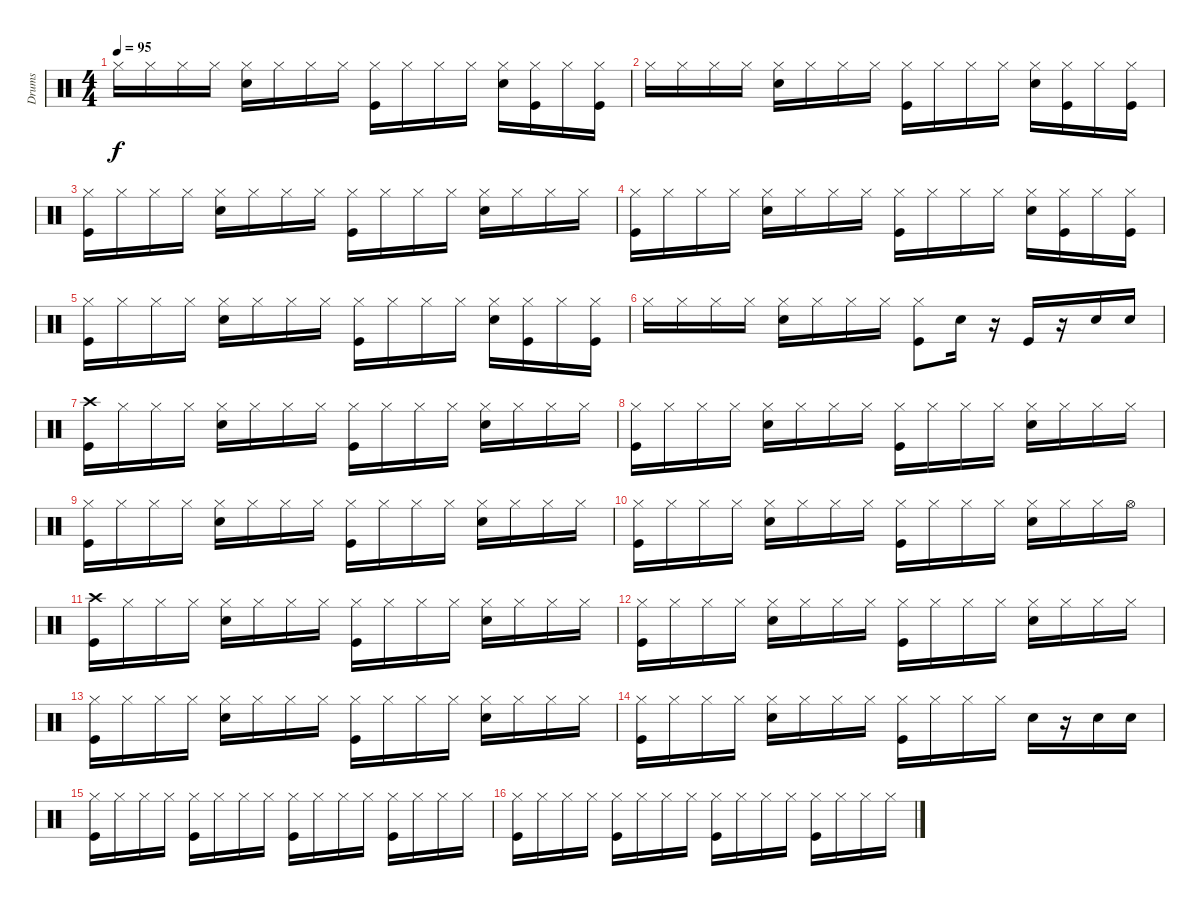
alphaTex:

\track ("Drums" "Drums") {instrument percussion}
\staff {score}
\articulation defaults
\ts (4 4)
\tempo 95
\clef neutral
\ks c "Hi-Hat (closed)".16{dy f} "Hi-Hat (closed)".16 "Hi-Hat (closed)".16 "Hi-Hat (closed)".16
("Hi-Hat (closed)" "Snare (hit) 2").16 "Hi-Hat (closed)".16 "Hi-Hat (closed)".16 "Hi-Hat (closed)".16 ("Hi-Hat (closed)" "Kick (hit)").16 "Hi-Hat (closed)".16 "Hi-Hat (closed)".16 "Hi-Hat (closed)".16 ("Hi-Hat (closed)" "Snare (hit) 2").16 ("Hi-Hat (closed)" "Kick (hit)").16 "Hi-Hat (closed)".16 ("Hi-Hat (closed)" "Kick (hit)").16 |
"Hi-Hat (closed)".16 "Hi-Hat (closed)".16 "Hi-Hat (closed)".16 "Hi-Hat (closed)".16 ("Hi-Hat (closed)" "Snare (hit) 2").16 "Hi-Hat (closed)".16 "Hi-Hat (closed)".16 "Hi-Hat (closed)".16 ("Hi-Hat (closed)" "Kick (hit)").16 "Hi-Hat (closed)".16 "Hi-Hat (closed)".16 "Hi-Hat (closed)".16 ("Hi-Hat (closed)" "Snare (hit) 2").16 ("Hi-Hat (closed)" "Kick (hit)").16 "Hi-Hat (closed)".16 ("Hi-Hat (closed)" "Kick (hit)").16 |
("Hi-Hat (closed)" "Kick (hit)").16 "Hi-Hat (closed)".16 "Hi-Hat (closed)".16 "Hi-Hat (closed)".16 ("Hi-Hat (closed)" "Snare (hit) 2").16 "Hi-Hat (closed)".16 "Hi-Hat (closed)".16 "Hi-Hat (closed)".16 ("Hi-Hat (closed)" "Kick (hit)").16 "Hi-Hat (closed)".16 "Hi-Hat (closed)".16 "Hi-Hat (closed)".16 ("Hi-Hat (closed)" "Snare (hit) 2").16 "Hi-Hat (closed)".16 "Hi-Hat (closed)".16 "Hi-Hat (closed)".16 |
("Hi-Hat (closed)" "Kick (hit)").16 "Hi-Hat (closed)".16 "Hi-Hat (closed)".16 "Hi-Hat (closed)".16 ("Hi-Hat (closed)" "Snare (hit) 2").16 "Hi-Hat (closed)".16 "Hi-Hat (closed)".16 "Hi-Hat (closed)".16 ("Hi-Hat (closed)" "Kick (hit)").16 "Hi-Hat (closed)".16 "Hi-Hat (closed)".16 "Hi-Hat (closed)".16 ("Hi-Hat (closed)" "Snare (hit) 2").16 ("Hi-Hat (closed)" "Kick (hit)").16 "Hi-Hat (closed)".16 ("Hi-Hat (closed)" "Kick (hit)").16 |
("Hi-Hat (closed)" "Kick (hit)").16 "Hi-Hat (closed)".16 "Hi-Hat (closed)".16 "Hi-Hat (closed)".16 ("Hi-Hat (closed)" "Snare (hit) 2").16 "Hi-Hat (closed)".16 "Hi-Hat (closed)".16 "Hi-Hat (closed)".16 ("Hi-Hat (closed)" "Kick (hit)").16 "Hi-Hat (closed)".16 "Hi-Hat (closed)".16 "Hi-Hat (closed)".16 ("Hi-Hat (closed)" "Snare (hit) 2").16 ("Hi-Hat (closed)" "Kick (hit)").16 "Hi-Hat (closed)".16 ("Hi-Hat (closed)" "Kick (hit)").16 |
"Hi-Hat (closed)".16 "Hi-Hat (closed)".16 "Hi-Hat (closed)".16 "Hi-Hat (closed)".16 ("Hi-Hat (closed)" "Snare (hit) 2").16 "Hi-Hat (closed)".16 "Hi-Hat (closed)".16 "Hi-Hat (closed)".16 ("Hi-Hat (closed)" "Kick (hit)").8 "Snare (hit) 2".16 r.16 "Kick (hit)".16 r.16 "Snare (hit) 2".16 "Snare (hit) 2".16 |
("Crash high (hit)" "Kick (hit)").16 "Hi-Hat (closed)".16 "Hi-Hat (closed)".16 "Hi-Hat (closed)".16 ("Hi-Hat (closed)" "Snare (hit) 2").16 "Hi-Hat (closed)".16 "Hi-Hat (closed)".16 "Hi-Hat (closed)".16 ("Hi-Hat (closed)" "Kick (hit)").16 "Hi-Hat (closed)".16 "Hi-Hat (closed)".16 "Hi-Hat (closed)".16 ("Hi-Hat (closed)" "Snare (hit) 2").16 "Hi-Hat (closed)".16 "Hi-Hat (closed)".16 "Hi-Hat (closed)".16 |
("Hi-Hat (closed)" "Kick (hit)").16 "Hi-Hat (closed)".16 "Hi-Hat (closed)".16 "Hi-Hat (closed)".16 ("Hi-Hat (closed)" "Snare (hit) 2").16 "Hi-Hat (closed)".16 "Hi-Hat (closed)".16 "Hi-Hat (closed)".16 ("Hi-Hat (closed)" "Kick (hit)").16 "Hi-Hat (closed)".16 "Hi-Hat (closed)".16 "Hi-Hat (closed)".16 ("Hi-Hat (closed)" "Snare (hit) 2").16 "Hi-Hat (closed)".16 "Hi-Hat (closed)".16 "Hi-Hat (closed)".16 |
("Hi-Hat (closed)" "Kick (hit)").16 "Hi-Hat (closed)".16 "Hi-Hat (closed)".16 "Hi-Hat (closed)".16 ("Hi-Hat (closed)" "Snare (hit) 2").16 "Hi-Hat (closed)".16 "Hi-Hat (closed)".16 "Hi-Hat (closed)".16 ("Hi-Hat (closed)" "Kick (hit)").16 "Hi-Hat (closed)".16 "Hi-Hat (closed)".16 "Hi-Hat (closed)".16 ("Hi-Hat (closed)" "Snare (hit) 2").16 "Hi-Hat (closed)".16 "Hi-Hat (closed)".16 "Hi-Hat (closed)".16 |
("Hi-Hat (closed)" "Kick (hit)").16 "Hi-Hat (closed)".16 "Hi-Hat (closed)".16 "Hi-Hat (closed)".16 ("Hi-Hat (closed)" "Snare (hit) 2").16 "Hi-Hat (closed)".16 "Hi-Hat (closed)".16 "Hi-Hat (closed)".16 ("Hi-Hat (closed)" "Kick (hit)").16 "Hi-Hat (closed)".16 "Hi-Hat (closed)".16 "Hi-Hat (closed)".16 ("Hi-Hat (closed)" "Snare (hit) 2").16 "Hi-Hat (closed)".16 "Hi-Hat (closed)".16 "Hi-Hat (open)".16 |
("Crash high (hit)" "Kick (hit)").16 "Hi-Hat (closed)".16 "Hi-Hat (closed)".16 "Hi-Hat (closed)".16 ("Hi-Hat (closed)" "Snare (hit) 2").16 "Hi-Hat (closed)".16 "Hi-Hat (closed)".16 "Hi-Hat (closed)".16 ("Hi-Hat (closed)" "Kick (hit)").16 "Hi-Hat (closed)".16 "Hi-Hat (closed)".16 "Hi-Hat (closed)".16 ("Hi-Hat (closed)" "Snare (hit) 2").16 "Hi-Hat (closed)".16 "Hi-Hat (closed)".16 "Hi-Hat (closed)".16 |
("Hi-Hat (closed)" "Kick (hit)").16 "Hi-Hat (closed)".16 "Hi-Hat (closed)".16 "Hi-Hat (closed)".16 ("Hi-Hat (closed)" "Snare (hit) 2").16 "Hi-Hat (closed)".16 "Hi-Hat (closed)".16 "Hi-Hat (closed)".16 ("Hi-Hat (closed)" "Kick (hit)").16 "Hi-Hat (closed)".16 "Hi-Hat (closed)".16 "Hi-Hat (closed)".16 ("Hi-Hat (closed)" "Snare (hit) 2").16 "Hi-Hat (closed)".16 "Hi-Hat (closed)".16 "Hi-Hat (closed)".16 |
("Hi-Hat (closed)" "Kick (hit)").16 "Hi-Hat (closed)".16 "Hi-Hat (closed)".16 "Hi-Hat (closed)".16 ("Hi-Hat (closed)" "Snare (hit) 2").16 "Hi-Hat (closed)".16 "Hi-Hat (closed)".16 "Hi-Hat (closed)".16 ("Hi-Hat (closed)" "Kick (hit)").16 "Hi-Hat (closed)".16 "Hi-Hat (closed)".16 "Hi-Hat (closed)".16 ("Hi-Hat (closed)" "Snare (hit) 2").16 "Hi-Hat (closed)".16 "Hi-Hat (closed)".16 "Hi-Hat (closed)".16 |
("Hi-Hat (closed)" "Kick (hit)").16 "Hi-Hat (closed)".16 "Hi-Hat (closed)".16 "Hi-Hat (closed)".16 ("Hi-Hat (closed)" "Snare (hit) 2").16 "Hi-Hat (closed)".16 "Hi-Hat (closed)".16 "Hi-Hat (closed)".16 ("Hi-Hat (closed)" "Kick (hit)").16 "Hi-Hat (closed)".16 "Hi-Hat (closed)".16 "Hi-Hat (closed)".16 "Snare (hit) 2".16 r.16 "Snare (hit) 2".16 "Snare (hit) 2".16 |
("Hi-Hat (closed)" "Kick (hit)").16 "Hi-Hat (closed)".16 "Hi-Hat (closed)".16 "Hi-Hat (closed)".16 ("Hi-Hat (closed)" "Kick (hit)").16 "Hi-Hat (closed)".16 "Hi-Hat (closed)".16 "Hi-Hat (closed)".16 ("Hi-Hat (closed)" "Kick (hit)").16 "Hi-Hat (closed)".16 "Hi-Hat (closed)".16 "Hi-Hat (closed)".16 ("Hi-Hat (closed)" "Kick (hit)").16 "Hi-Hat (closed)".16 "Hi-Hat (closed)".16 "Hi-Hat (closed)".16 |
("Hi-Hat (closed)" "Kick (hit)").16 "Hi-Hat (closed)".16 "Hi-Hat (closed)".16 "Hi-Hat (closed)".16 ("Hi-Hat (closed)" "Kick (hit)").16 "Hi-Hat (closed)".16 "Hi-Hat (closed)".16 "Hi-Hat (closed)".16 ("Hi-Hat (closed)" "Kick (hit)").16 "Hi-Hat (closed)".16 "Hi-Hat (closed)".16 "Hi-Hat (closed)".16 ("Hi-Hat (closed)" "Kick (hit)").16 "Hi-Hat (closed)".16 "Hi-Hat (closed)".16 "Hi-Hat (closed)".16
